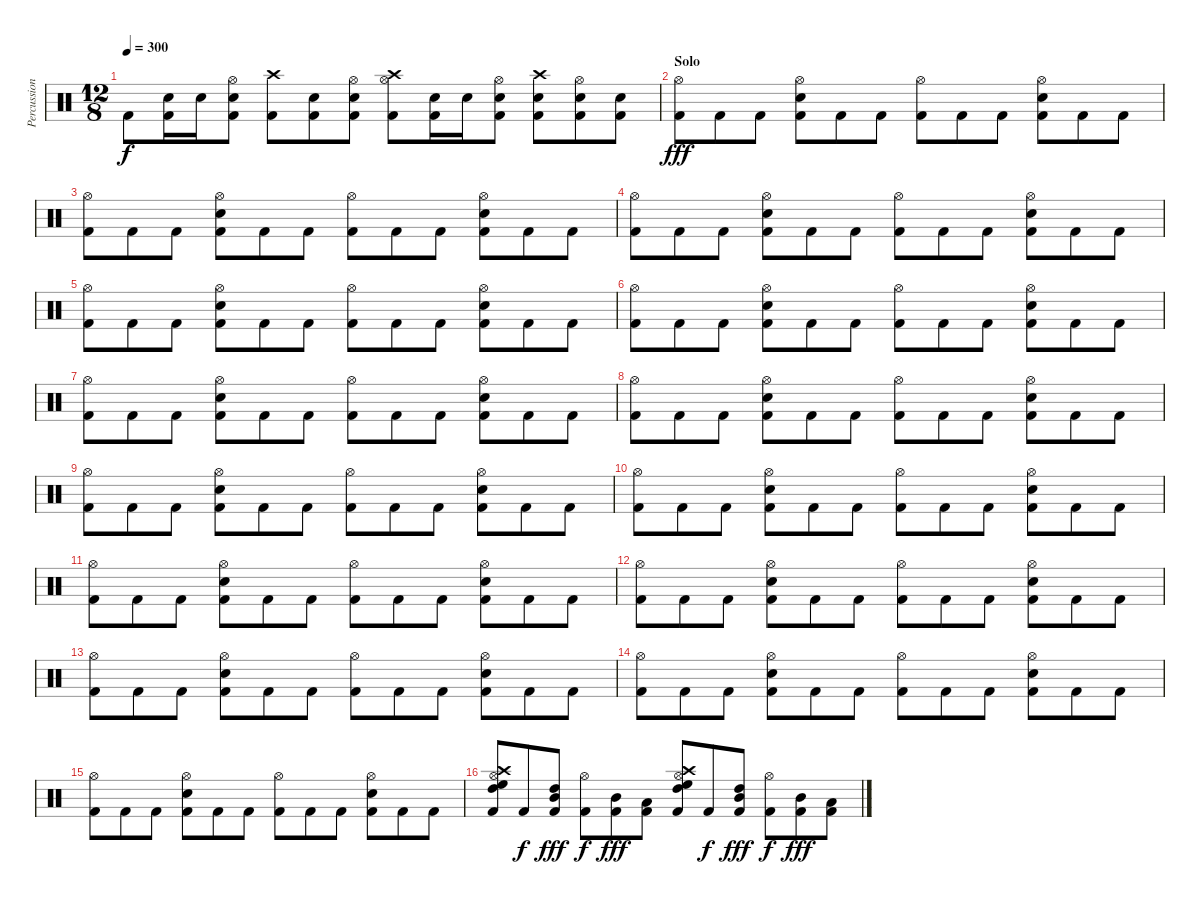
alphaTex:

\track ("Percussion" "Percussion") {instrument percussion}
\staff {score}
\articulation defaults
\ts (12 8)
\tempo 300
\clef neutral
\ks c "Kick (hit) 2".8{dy f}
("Snare (hit) 2" "Kick (hit) 2").16 "Snare (hit) 2".16 ("Hi-Hat (open)" "Snare (hit) 2" "Kick (hit) 2").8 ("Crash high (hit)" "Kick (hit) 2").8 ("Snare (hit) 2" "Kick (hit) 2").8 ("Hi-Hat (open)" "Snare (hit) 2" "Kick (hit) 2").8 ("Crash high (hit)" "Hi-Hat (open)" "Kick (hit) 2").8 ("Snare (hit) 2" "Kick (hit) 2").16 "Snare (hit) 2".16 ("Hi-Hat (open)" "Snare (hit) 2" "Kick (hit) 2").8 ("Crash high (hit)" "Snare (hit) 2" "Kick (hit) 2").8 ("Hi-Hat (open)" "Snare (hit) 2" "Kick (hit) 2").8 ("Snare (hit) 2" "Kick (hit) 2").8 |
\section ("" "Solo")
("Hi-Hat (open)" "Kick (hit) 2").8{dy fff} "Kick (hit) 2".8 "Kick (hit) 2".8 ("Hi-Hat (open)" "Snare (hit) 2" "Kick (hit) 2").8 "Kick (hit) 2".8 "Kick (hit) 2".8 ("Hi-Hat (open)" "Kick (hit) 2").8 "Kick (hit) 2".8 "Kick (hit) 2".8 ("Hi-Hat (open)" "Snare (hit) 2" "Kick (hit) 2").8 "Kick (hit) 2".8 "Kick (hit) 2".8 |
("Hi-Hat (open)" "Kick (hit) 2").8 "Kick (hit) 2".8 "Kick (hit) 2".8 ("Hi-Hat (open)" "Snare (hit) 2" "Kick (hit) 2").8 "Kick (hit) 2".8 "Kick (hit) 2".8 ("Hi-Hat (open)" "Kick (hit) 2").8 "Kick (hit) 2".8 "Kick (hit) 2".8 ("Hi-Hat (open)" "Snare (hit) 2" "Kick (hit) 2").8 "Kick (hit) 2".8 "Kick (hit) 2".8 |
("Hi-Hat (open)" "Kick (hit) 2").8 "Kick (hit) 2".8 "Kick (hit) 2".8 ("Hi-Hat (open)" "Snare (hit) 2" "Kick (hit) 2").8 "Kick (hit) 2".8 "Kick (hit) 2".8 ("Hi-Hat (open)" "Kick (hit) 2").8 "Kick (hit) 2".8 "Kick (hit) 2".8 ("Hi-Hat (open)" "Snare (hit) 2" "Kick (hit) 2").8 "Kick (hit) 2".8 "Kick (hit) 2".8 |
("Hi-Hat (open)" "Kick (hit) 2").8 "Kick (hit) 2".8 "Kick (hit) 2".8 ("Hi-Hat (open)" "Snare (hit) 2" "Kick (hit) 2").8 "Kick (hit) 2".8 "Kick (hit) 2".8 ("Hi-Hat (open)" "Kick (hit) 2").8 "Kick (hit) 2".8 "Kick (hit) 2".8 ("Hi-Hat (open)" "Snare (hit) 2" "Kick (hit) 2").8 "Kick (hit) 2".8 "Kick (hit) 2".8 |
("Hi-Hat (open)" "Kick (hit) 2").8 "Kick (hit) 2".8 "Kick (hit) 2".8 ("Hi-Hat (open)" "Snare (hit) 2" "Kick (hit) 2").8 "Kick (hit) 2".8 "Kick (hit) 2".8 ("Hi-Hat (open)" "Kick (hit) 2").8 "Kick (hit) 2".8 "Kick (hit) 2".8 ("Hi-Hat (open)" "Snare (hit) 2" "Kick (hit) 2").8 "Kick (hit) 2".8 "Kick (hit) 2".8 |
("Hi-Hat (open)" "Kick (hit) 2").8 "Kick (hit) 2".8 "Kick (hit) 2".8 ("Hi-Hat (open)" "Snare (hit) 2" "Kick (hit) 2").8 "Kick (hit) 2".8 "Kick (hit) 2".8 ("Hi-Hat (open)" "Kick (hit) 2").8 "Kick (hit) 2".8 "Kick (hit) 2".8 ("Hi-Hat (open)" "Snare (hit) 2" "Kick (hit) 2").8 "Kick (hit) 2".8 "Kick (hit) 2".8 |
("Hi-Hat (open)" "Kick (hit) 2").8 "Kick (hit) 2".8 "Kick (hit) 2".8 ("Hi-Hat (open)" "Snare (hit) 2" "Kick (hit) 2").8 "Kick (hit) 2".8 "Kick (hit) 2".8 ("Hi-Hat (open)" "Kick (hit) 2").8 "Kick (hit) 2".8 "Kick (hit) 2".8 ("Hi-Hat (open)" "Snare (hit) 2" "Kick (hit) 2").8 "Kick (hit) 2".8 "Kick (hit) 2".8 |
("Hi-Hat (open)" "Kick (hit) 2").8 "Kick (hit) 2".8 "Kick (hit) 2".8 ("Hi-Hat (open)" "Snare (hit) 2" "Kick (hit) 2").8 "Kick (hit) 2".8 "Kick (hit) 2".8 ("Hi-Hat (open)" "Kick (hit) 2").8 "Kick (hit) 2".8 "Kick (hit) 2".8 ("Hi-Hat (open)" "Snare (hit) 2" "Kick (hit) 2").8 "Kick (hit) 2".8 "Kick (hit) 2".8 |
("Hi-Hat (open)" "Kick (hit) 2").8 "Kick (hit) 2".8 "Kick (hit) 2".8 ("Hi-Hat (open)" "Snare (hit) 2" "Kick (hit) 2").8 "Kick (hit) 2".8 "Kick (hit) 2".8 ("Hi-Hat (open)" "Kick (hit) 2").8 "Kick (hit) 2".8 "Kick (hit) 2".8 ("Hi-Hat (open)" "Snare (hit) 2" "Kick (hit) 2").8 "Kick (hit) 2".8 "Kick (hit) 2".8 |
("Hi-Hat (open)" "Kick (hit) 2").8 "Kick (hit) 2".8 "Kick (hit) 2".8 ("Hi-Hat (open)" "Snare (hit) 2" "Kick (hit) 2").8 "Kick (hit) 2".8 "Kick (hit) 2".8 ("Hi-Hat (open)" "Kick (hit) 2").8 "Kick (hit) 2".8 "Kick (hit) 2".8 ("Hi-Hat (open)" "Snare (hit) 2" "Kick (hit) 2").8 "Kick (hit) 2".8 "Kick (hit) 2".8 |
("Hi-Hat (open)" "Kick (hit) 2").8 "Kick (hit) 2".8 "Kick (hit) 2".8 ("Hi-Hat (open)" "Snare (hit) 2" "Kick (hit) 2").8 "Kick (hit) 2".8 "Kick (hit) 2".8 ("Hi-Hat (open)" "Kick (hit) 2").8 "Kick (hit) 2".8 "Kick (hit) 2".8 ("Hi-Hat (open)" "Snare (hit) 2" "Kick (hit) 2").8 "Kick (hit) 2".8 "Kick (hit) 2".8 |
("Hi-Hat (open)" "Kick (hit) 2").8 "Kick (hit) 2".8 "Kick (hit) 2".8 ("Hi-Hat (open)" "Snare (hit) 2" "Kick (hit) 2").8 "Kick (hit) 2".8 "Kick (hit) 2".8 ("Hi-Hat (open)" "Kick (hit) 2").8 "Kick (hit) 2".8 "Kick (hit) 2".8 ("Hi-Hat (open)" "Snare (hit) 2" "Kick (hit) 2").8 "Kick (hit) 2".8 "Kick (hit) 2".8 |
("Hi-Hat (open)" "Kick (hit) 2").8 "Kick (hit) 2".8 "Kick (hit) 2".8 ("Hi-Hat (open)" "Snare (hit) 2" "Kick (hit) 2").8 "Kick (hit) 2".8 "Kick (hit) 2".8 ("Hi-Hat (open)" "Kick (hit) 2").8 "Kick (hit) 2".8 "Kick (hit) 2".8 ("Hi-Hat (open)" "Snare (hit) 2" "Kick (hit) 2").8 "Kick (hit) 2".8 "Kick (hit) 2".8 |
("Hi-Hat (open)" "Kick (hit) 2").8 "Kick (hit) 2".8 "Kick (hit) 2".8 ("Hi-Hat (open)" "Snare (hit) 2" "Kick (hit) 2").8 "Kick (hit) 2".8 "Kick (hit) 2".8 ("Hi-Hat (open)" "Kick (hit) 2").8 "Kick (hit) 2".8 "Kick (hit) 2".8 ("Hi-Hat (open)" "Snare (hit) 2" "Kick (hit) 2").8 "Kick (hit) 2".8 "Kick (hit) 2".8 |
("Crash high (hit)" "Hi-Hat (open)" "High Floor Tom (hit)" "High Tom (hit)" "Kick (hit) 2").8 "Kick (hit) 2".8{dy f} ("High Tom (hit)" "Mid Tom (hit)" "Kick (hit) 2").8{dy fff} ("Hi-Hat (open)" "Kick (hit) 2").8{dy f} ("Mid Tom (hit)" "Kick (hit) 2").8{dy fff} ("Low Tom (hit)" "Kick (hit) 2").8 ("Crash high (hit)" "Hi-Hat (open)" "High Floor Tom (hit)" "High Tom (hit)" "Kick (hit) 2").8 "Kick (hit) 2".8{dy f} ("High Tom (hit)" "Mid Tom (hit)" "Kick (hit) 2").8{dy fff} ("Hi-Hat (open)" "Kick (hit) 2").8{dy f} ("Mid Tom (hit)" "Kick (hit) 2").8{dy fff} ("Low Tom (hit)" "Kick (hit) 2").8
